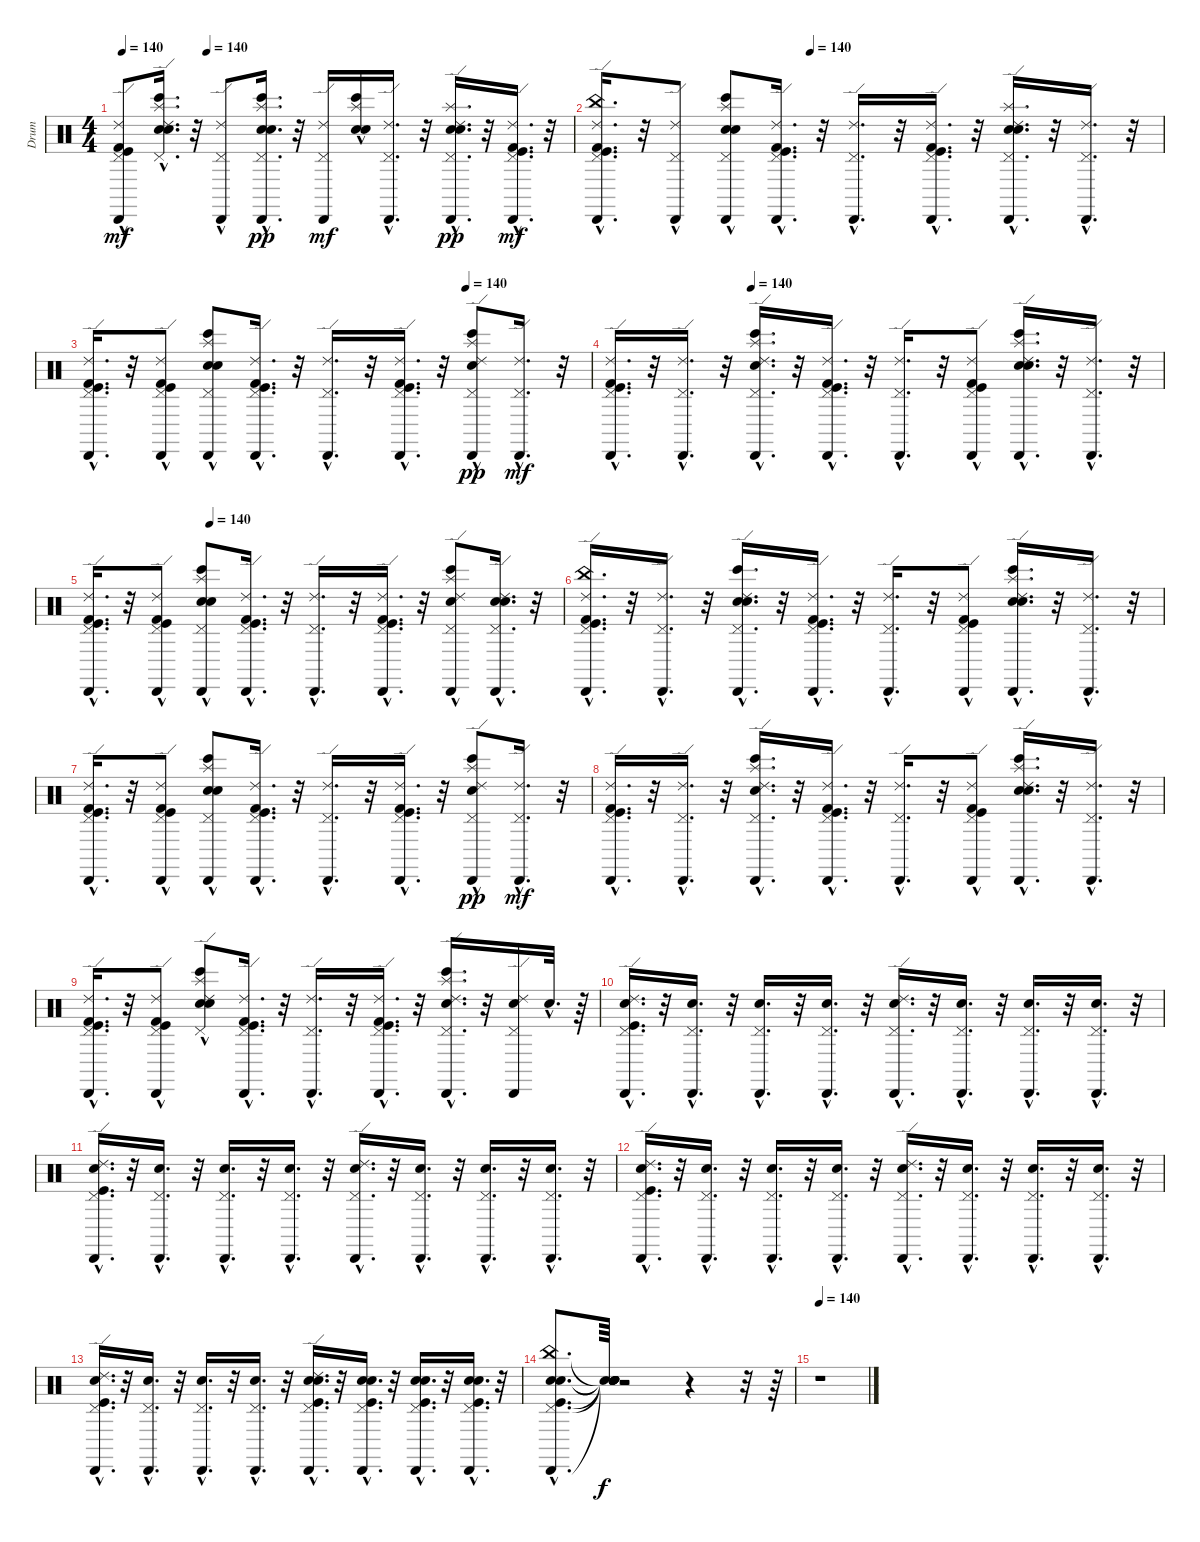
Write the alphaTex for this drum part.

\track ("Drum" "Drum") {instrument percussion}
\staff {score}
\articulation defaults
\ts (4 4)
\tempo 140
\tempo (140 0.1875)
\clef neutral
\ks c
("Cabasa (hit)"{hac} "Kick (hit) 2"{hac} "Pedal Hi-Hat (hit)"{hac} "Kick (hit)"{hac} "Ride (edge) 2"{hac}).8{dy mf} ("Splash (hit)"{hac} "Pedal Hi-Hat (hit)"{hac} "Bongo High (hit)"{hac} "Ride (edge) 2"{hac} "Snare (hit) 2"{hac} "Electric Snare (hit)"{hac}).16{d} r.32 ("Pedal Hi-Hat (hit)"{hac} "Cabasa (hit)"{hac} "Ride (edge) 2"{hac}).8 ("Snare (hit) 2"{hac} "Cabasa (hit)"{hac} "Pedal Hi-Hat (hit)"{hac} "Electric Snare (hit)"{hac} "Bongo High (hit)"{hac} "Splash (hit)"{hac}).16{d dy pp} r.32 ("Cabasa (hit)" "Ride (edge) 2" "Pedal Hi-Hat (hit)").16{dy mf} ("Bongo High (hit)" "Splash (hit)"{hac} "Electric Snare (hit)"{hac} "Snare (hit) 2"{hac}).16 ("Cabasa (hit)"{hac} "Ride (edge) 2"{hac} "Pedal Hi-Hat (hit)"{hac}).16{d} r.32 ("Ride (edge) 2"{hac} "Snare (hit) 2"{hac} "Pedal Hi-Hat (hit)"{hac} "Cabasa (hit)"{hac} "Electric Snare (hit)"{hac} "Splash (hit)"{hac}).16{d dy pp} r.32 ("Pedal Hi-Hat (hit)"{hac} "Kick (hit) 2"{hac} "Ride (edge) 2"{hac} "Cabasa (hit)"{hac} "Kick (hit)"{hac}).16{d dy mf} r.32 |
\tempo (140 0.375)
("Ride (edge) 2"{hac} "Pedal Hi-Hat (hit)"{hac} "Kick (hit)"{hac} "Kick (hit) 2"{hac} "Cabasa (hit)"{hac} "China (hit)"{hac}).16{d} r.32 ("Pedal Hi-Hat (hit)"{hac} "Cabasa (hit)"{hac} "Ride (edge) 2"{hac}).8 ("Bongo High (hit)" "Snare (hit) 2"{hac} "Cabasa (hit)"{hac} "Electric Snare (hit)"{hac} "Splash (hit)"{hac} "Pedal Hi-Hat (hit)"{hac}).8 ("Kick (hit)"{hac} "Cabasa (hit)"{hac} "Kick (hit) 2"{hac} "Pedal Hi-Hat (hit)"{hac} "Ride (edge) 2"{hac}).16{d} r.32 ("Pedal Hi-Hat (hit)"{hac} "Ride (edge) 2"{hac} "Cabasa (hit)"{hac}).16{d} r.32 ("Kick (hit)"{hac} "Cabasa (hit)"{hac} "Ride (edge) 2"{hac} "Kick (hit) 2"{hac} "Pedal Hi-Hat (hit)"{hac}).16{d} r.32 ("Electric Snare (hit)"{hac} "Ride (edge) 2"{hac} "Snare (hit) 2"{hac} "Pedal Hi-Hat (hit)"{hac} "Splash (hit)"{hac} "Cabasa (hit)"{hac}).16{d} r.32 ("Pedal Hi-Hat (hit)"{hac} "Ride (edge) 2"{hac} "Cabasa (hit)"{hac}).16{d} r.32 |
\tempo (140 0.75)
("Kick (hit) 2"{hac} "Cabasa (hit)"{hac} "Ride (edge) 2"{hac} "Kick (hit)"{hac} "Pedal Hi-Hat (hit)"{hac}).16{d} r.32 ("Pedal Hi-Hat (hit)"{hac} "Kick (hit) 2"{hac} "Ride (edge) 2"{hac} "Cabasa (hit)"{hac} "Kick (hit)"{hac}).8 ("Cabasa (hit)"{hac} "Electric Snare (hit)"{hac} "Splash (hit)"{hac} "Snare (hit) 2" "Bongo High (hit)"{hac} "Pedal Hi-Hat (hit)"{hac}).8 ("Kick (hit) 2"{hac} "Cabasa (hit)"{hac} "Pedal Hi-Hat (hit)"{hac} "Kick (hit)"{hac} "Ride (edge) 2"{hac}).16{d} r.32 ("Ride (edge) 2"{hac} "Cabasa (hit)"{hac} "Pedal Hi-Hat (hit)"{hac}).16{d} r.32 ("Kick (hit)"{hac} "Cabasa (hit)"{hac} "Kick (hit) 2"{hac} "Ride (edge) 2"{hac} "Pedal Hi-Hat (hit)"{hac}).16{d} r.32 ("Cabasa (hit)"{hac} "Ride (edge) 2"{hac} "Pedal Hi-Hat (hit)"{hac} "Bongo High (hit)"{hac} "Electric Snare (hit)" "Splash (hit)"{hac}).8{dy pp} ("Pedal Hi-Hat (hit)"{hac} "Cabasa (hit)"{hac} "Ride (edge) 2"{hac}).16{d dy mf} r.32 |
\tempo (140 0.25)
("Kick (hit) 2"{hac} "Kick (hit)"{hac} "Ride (edge) 2"{hac} "Cabasa (hit)"{hac} "Pedal Hi-Hat (hit)"{hac}).16{d} r.32 ("Ride (edge) 2"{hac} "Cabasa (hit)"{hac} "Pedal Hi-Hat (hit)"{hac}).16{d} r.32 ("Bongo High (hit)"{hac} "Ride (edge) 2"{hac} "Splash (hit)"{hac} "Pedal Hi-Hat (hit)"{hac} "Snare (hit) 2"{hac} "Cabasa (hit)"{hac}).16{d} r.32 ("Kick (hit)"{hac} "Kick (hit) 2"{hac} "Cabasa (hit)"{hac} "Pedal Hi-Hat (hit)"{hac} "Ride (edge) 2"{hac}).16{d} r.32 ("Pedal Hi-Hat (hit)"{hac} "Ride (edge) 2"{hac} "Cabasa (hit)"{hac}).16{d} r.32 ("Kick (hit)"{hac} "Cabasa (hit)"{hac} "Kick (hit) 2"{hac} "Ride (edge) 2"{hac} "Pedal Hi-Hat (hit)"{hac}).8 ("Ride (edge) 2"{hac} "Bongo High (hit)"{hac} "Splash (hit)"{hac} "Electric Snare (hit)"{hac} "Cabasa (hit)"{hac} "Snare (hit) 2"{hac}).16{d} r.32 ("Ride (edge) 2"{hac} "Cabasa (hit)"{hac} "Pedal Hi-Hat (hit)"{hac}).16{d} r.32 |
\tempo (140 0.25)
("Cabasa (hit)"{hac} "Kick (hit)"{hac} "Pedal Hi-Hat (hit)"{hac} "Ride (edge) 2"{hac} "Kick (hit) 2"{hac}).16{d} r.32 ("Cabasa (hit)"{hac} "Kick (hit) 2"{hac} "Ride (edge) 2"{hac} "Kick (hit)"{hac} "Pedal Hi-Hat (hit)"{hac}).8 ("Bongo High (hit)"{hac} "Cabasa (hit)"{hac} "Splash (hit)"{hac} "Pedal Hi-Hat (hit)"{hac} "Electric Snare (hit)" "Snare (hit) 2"{hac}).8 ("Kick (hit) 2"{hac} "Pedal Hi-Hat (hit)"{hac} "Kick (hit)"{hac} "Cabasa (hit)"{hac} "Ride (edge) 2"{hac}).16{d} r.32 ("Ride (edge) 2"{hac} "Cabasa (hit)"{hac} "Pedal Hi-Hat (hit)"{hac}).16{d} r.32 ("Ride (edge) 2"{hac} "Kick (hit)"{hac} "Pedal Hi-Hat (hit)"{hac} "Cabasa (hit)"{hac} "Kick (hit) 2"{hac}).16{d} r.32 ("Ride (edge) 2"{hac} "Splash (hit)" "Snare (hit) 2"{hac} "Cabasa (hit)"{hac} "Bongo High (hit)"{hac} "Pedal Hi-Hat (hit)"{hac}).8 ("Snare (hit) 2"{hac} "Electric Snare (hit)"{hac} "Cabasa (hit)"{hac} "Ride (edge) 2"{hac} "Pedal Hi-Hat (hit)"{hac}).16{d} r.32 |
("Ride (edge) 2"{hac} "China (hit)"{hac} "Pedal Hi-Hat (hit)"{hac} "Kick (hit) 2"{hac} "Kick (hit)"{hac} "Cabasa (hit)"{hac}).16{d} r.32 ("Cabasa (hit)"{hac} "Pedal Hi-Hat (hit)"{hac} "Ride (edge) 2"{hac}).16{d} r.32 ("Snare (hit) 2"{hac} "Electric Snare (hit)"{hac} "Bongo High (hit)"{hac} "Cabasa (hit)"{hac} "Pedal Hi-Hat (hit)"{hac} "Ride (edge) 2"{hac}).16{d} r.32 ("Kick (hit)"{hac} "Cabasa (hit)"{hac} "Pedal Hi-Hat (hit)"{hac} "Kick (hit) 2"{hac} "Ride (edge) 2"{hac}).16{d} r.32 ("Pedal Hi-Hat (hit)"{hac} "Ride (edge) 2"{hac} "Cabasa (hit)"{hac}).16{d} r.32 ("Kick (hit)"{hac} "Pedal Hi-Hat (hit)"{hac} "Cabasa (hit)"{hac} "Kick (hit) 2"{hac} "Ride (edge) 2"{hac}).8 ("Electric Snare (hit)"{hac} "Bongo High (hit)"{hac} "Splash (hit)"{hac} "Cabasa (hit)"{hac} "Snare (hit) 2"{hac} "Ride (edge) 2"{hac}).16{d} r.32 ("Pedal Hi-Hat (hit)"{hac} "Cabasa (hit)"{hac} "Ride (edge) 2"{hac}).16{d} r.32 |
("Kick (hit) 2"{hac} "Cabasa (hit)"{hac} "Ride (edge) 2"{hac} "Kick (hit)"{hac} "Pedal Hi-Hat (hit)"{hac}).16{d} r.32 ("Pedal Hi-Hat (hit)"{hac} "Kick (hit) 2"{hac} "Ride (edge) 2"{hac} "Cabasa (hit)"{hac} "Kick (hit)"{hac}).8 ("Cabasa (hit)"{hac} "Electric Snare (hit)"{hac} "Splash (hit)"{hac} "Snare (hit) 2" "Bongo High (hit)"{hac} "Pedal Hi-Hat (hit)"{hac}).8 ("Kick (hit) 2"{hac} "Cabasa (hit)"{hac} "Pedal Hi-Hat (hit)"{hac} "Kick (hit)"{hac} "Ride (edge) 2"{hac}).16{d} r.32 ("Ride (edge) 2"{hac} "Cabasa (hit)"{hac} "Pedal Hi-Hat (hit)"{hac}).16{d} r.32 ("Kick (hit)"{hac} "Cabasa (hit)"{hac} "Kick (hit) 2"{hac} "Ride (edge) 2"{hac} "Pedal Hi-Hat (hit)"{hac}).16{d} r.32 ("Cabasa (hit)"{hac} "Ride (edge) 2"{hac} "Pedal Hi-Hat (hit)"{hac} "Bongo High (hit)"{hac} "Electric Snare (hit)" "Splash (hit)"{hac}).8{dy pp} ("Pedal Hi-Hat (hit)"{hac} "Cabasa (hit)"{hac} "Ride (edge) 2"{hac}).16{d dy mf} r.32 |
("Ride (edge) 2"{hac} "Kick (hit)"{hac} "Kick (hit) 2"{hac} "Cabasa (hit)"{hac} "Pedal Hi-Hat (hit)"{hac}).16{d} r.32 ("Ride (edge) 2"{hac} "Cabasa (hit)"{hac} "Pedal Hi-Hat (hit)"{hac}).16{d} r.32 ("Snare (hit) 2"{hac} "Pedal Hi-Hat (hit)"{hac} "Splash (hit)"{hac} "Bongo High (hit)"{hac} "Ride (edge) 2"{hac} "Cabasa (hit)"{hac}).16{d} r.32 ("Cabasa (hit)"{hac} "Kick (hit) 2"{hac} "Kick (hit)"{hac} "Pedal Hi-Hat (hit)"{hac} "Ride (edge) 2"{hac}).16{d} r.32 ("Ride (edge) 2"{hac} "Pedal Hi-Hat (hit)"{hac} "Cabasa (hit)"{hac}).16{d} r.32 ("Kick (hit) 2"{hac} "Cabasa (hit)"{hac} "Kick (hit)"{hac} "Ride (edge) 2"{hac} "Pedal Hi-Hat (hit)"{hac}).8 ("Ride (edge) 2"{hac} "Bongo High (hit)"{hac} "Snare (hit) 2"{hac} "Cabasa (hit)"{hac} "Splash (hit)"{hac} "Electric Snare (hit)"{hac}).16{d} r.32 ("Pedal Hi-Hat (hit)"{hac} "Ride (edge) 2"{hac} "Cabasa (hit)"{hac}).16{d} r.32 |
("Pedal Hi-Hat (hit)"{hac} "Ride (edge) 2"{hac} "Cabasa (hit)"{hac} "Kick (hit)"{hac} "Kick (hit) 2"{hac}).16{d} r.32 ("Ride (edge) 2"{hac} "Kick (hit) 2"{hac} "Kick (hit)"{hac} "Cabasa (hit)"{hac} "Pedal Hi-Hat (hit)"{hac}).8 ("Pedal Hi-Hat (hit)"{hac} "Bongo High (hit)"{hac} "Snare (hit) 2"{hac} "Electric Snare (hit)" "Splash (hit)"{hac} "Ride (edge) 2"{hac}).8 ("Cabasa (hit)"{hac} "Kick (hit)"{hac} "Kick (hit) 2"{hac} "Ride (edge) 2"{hac} "Pedal Hi-Hat (hit)"{hac}).16{d} r.32 ("Ride (edge) 2"{hac} "Cabasa (hit)"{hac} "Pedal Hi-Hat (hit)"{hac}).16{d} r.32 ("Pedal Hi-Hat (hit)"{hac} "Kick (hit)"{hac} "Kick (hit) 2"{hac} "Cabasa (hit)"{hac} "Ride (edge) 2"{hac}).16{d} r.32 ("Splash (hit)"{hac} "Snare (hit) 2"{hac} "Ride (edge) 2"{hac} "Cabasa (hit)"{hac} "Pedal Hi-Hat (hit)"{hac} "Bongo High (hit)"{hac}).16{d} r.32 ("Snare (hit) 2" "Cabasa (hit)" "Pedal Hi-Hat (hit)" "Ride (edge) 2").16 "Snare (hit) 2"{hac}.32{d} r.64 |
("Pedal Hi-Hat (hit)"{hac} "Cabasa (hit)"{hac} "Kick (hit)"{hac} "Ride (edge) 2"{hac} "Electric Snare (hit)"{hac}).16{d} r.32 ("Pedal Hi-Hat (hit)"{hac} "Electric Snare (hit)"{hac} "Cabasa (hit)"{hac}).16{d} r.32 ("Pedal Hi-Hat (hit)"{hac} "Electric Snare (hit)"{hac} "Cabasa (hit)"{hac}).16{d} r.32 ("Pedal Hi-Hat (hit)"{hac} "Electric Snare (hit)"{hac} "Cabasa (hit)"{hac}).16{d} r.32 ("Electric Snare (hit)"{hac} "Ride (edge) 2"{hac} "Cabasa (hit)"{hac} "Pedal Hi-Hat (hit)"{hac}).16{d} r.32 ("Cabasa (hit)"{hac} "Pedal Hi-Hat (hit)"{hac} "Electric Snare (hit)"{hac}).16{d} r.32 ("Cabasa (hit)"{hac} "Electric Snare (hit)"{hac} "Pedal Hi-Hat (hit)"{hac}).16{d} r.32 ("Electric Snare (hit)"{hac} "Cabasa (hit)"{hac} "Pedal Hi-Hat (hit)"{hac}).16{d} r.32 |
("Cabasa (hit)"{hac} "Electric Snare (hit)"{hac} "Pedal Hi-Hat (hit)"{hac} "Ride (edge) 2"{hac} "Kick (hit)"{hac}).16{d} r.32 ("Electric Snare (hit)"{hac} "Pedal Hi-Hat (hit)"{hac} "Cabasa (hit)"{hac}).16{d} r.32 ("Electric Snare (hit)"{hac} "Pedal Hi-Hat (hit)"{hac} "Cabasa (hit)"{hac}).16{d} r.32 ("Electric Snare (hit)"{hac} "Pedal Hi-Hat (hit)"{hac} "Cabasa (hit)"{hac}).16{d} r.32 ("Cabasa (hit)"{hac} "Pedal Hi-Hat (hit)"{hac} "Electric Snare (hit)"{hac} "Ride (edge) 2"{hac}).16{d} r.32 ("Cabasa (hit)"{hac} "Electric Snare (hit)"{hac} "Pedal Hi-Hat (hit)"{hac}).16{d} r.32 ("Cabasa (hit)"{hac} "Pedal Hi-Hat (hit)"{hac} "Electric Snare (hit)"{hac}).16{d} r.32 ("Pedal Hi-Hat (hit)"{hac} "Cabasa (hit)"{hac} "Electric Snare (hit)"{hac}).16{d} r.32 |
("Cabasa (hit)"{hac} "Electric Snare (hit)"{hac} "Pedal Hi-Hat (hit)"{hac} "Ride (edge) 2"{hac} "Kick (hit)"{hac}).16{d} r.32 ("Electric Snare (hit)"{hac} "Pedal Hi-Hat (hit)"{hac} "Cabasa (hit)"{hac}).16{d} r.32 ("Electric Snare (hit)"{hac} "Pedal Hi-Hat (hit)"{hac} "Cabasa (hit)"{hac}).16{d} r.32 ("Electric Snare (hit)"{hac} "Pedal Hi-Hat (hit)"{hac} "Cabasa (hit)"{hac}).16{d} r.32 ("Cabasa (hit)"{hac} "Pedal Hi-Hat (hit)"{hac} "Electric Snare (hit)"{hac} "Ride (edge) 2"{hac}).16{d} r.32 ("Cabasa (hit)"{hac} "Electric Snare (hit)"{hac} "Pedal Hi-Hat (hit)"{hac}).16{d} r.32 ("Cabasa (hit)"{hac} "Pedal Hi-Hat (hit)"{hac} "Electric Snare (hit)"{hac}).16{d} r.32 ("Pedal Hi-Hat (hit)"{hac} "Cabasa (hit)"{hac} "Electric Snare (hit)"{hac}).16{d} r.32 |
("Cabasa (hit)"{hac} "Electric Snare (hit)"{hac} "Pedal Hi-Hat (hit)"{hac} "Ride (edge) 2"{hac} "Kick (hit)"{hac}).16{d} r.32 ("Electric Snare (hit)"{hac} "Pedal Hi-Hat (hit)"{hac} "Cabasa (hit)"{hac}).16{d} r.32 ("Electric Snare (hit)"{hac} "Pedal Hi-Hat (hit)"{hac} "Cabasa (hit)"{hac}).16{d} r.32 ("Electric Snare (hit)"{hac} "Pedal Hi-Hat (hit)"{hac} "Cabasa (hit)"{hac}).16{d} r.32 ("Cabasa (hit)"{hac} "Pedal Hi-Hat (hit)"{hac} "Electric Snare (hit)"{hac} "Ride (edge) 2"{hac} "Kick (hit)"{hac} "Snare (hit) 2"{hac}).16{d} r.32 ("Electric Snare (hit)"{hac} "Cabasa (hit)"{hac} "Kick (hit)"{hac} "Snare (hit) 2"{hac} "Pedal Hi-Hat (hit)"{hac}).16{d} r.32 ("Cabasa (hit)"{hac} "Pedal Hi-Hat (hit)"{hac} "Electric Snare (hit)"{hac} "Kick (hit)"{hac} "Snare (hit) 2"{hac}).16{d} r.32 ("Cabasa (hit)"{hac} "Pedal Hi-Hat (hit)"{hac} "Electric Snare (hit)"{hac} "Kick (hit)"{hac} "Snare (hit) 2"{hac}).16{d} r.32 |
("Electric Snare (hit)"{hac} "Snare (hit) 2"{hac} "Pedal Hi-Hat (hit)"{hac} "Cabasa (hit)"{hac} "China (hit)"{hac} "Kick (hit)"{hac}).8{d} ("Snare (hit)"{t} "Snare (hit)"{t} "Snare (hit)"{t} "Snare (hit)"{t} "Snare (hit)"{t} "Snare (hit)"{t}).64{dy f} r.2 r.4 r.32 r.64 |
\tempo 140
r.1
